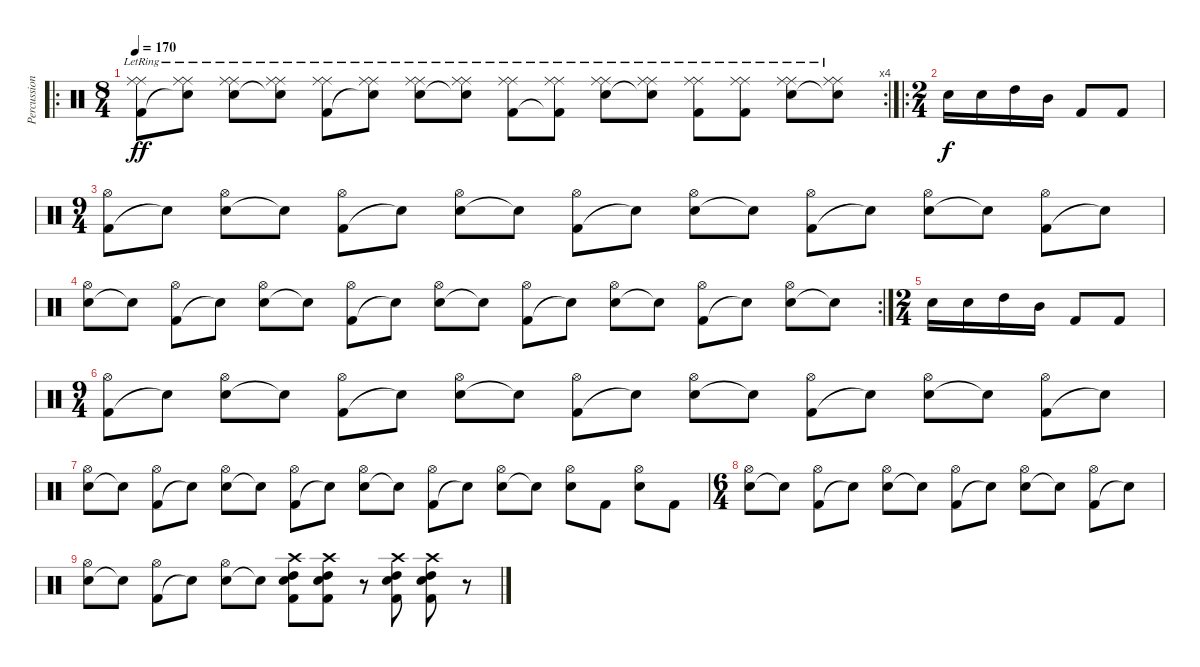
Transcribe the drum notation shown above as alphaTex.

\track ("Percussion" "Percussion") {instrument percussion}
\staff {score}
\articulation defaults
\ro
\rc 4
\ts (8 4)
\tempo 170
\clef neutral
\ks c
("Kick (hit) 2" "Ride (middle)"{lr} "Ride (middle)").8{dy ff} ("Snare (hit)"{t} "Ride (middle)"{lr} "Ride (middle)").8 ("Electric Snare (hit)" "Ride (middle)"{lr} "Ride (middle)").8 ("Snare (hit)"{t} "Ride (middle)"{lr} "Ride (middle)").8 ("Kick (hit) 2" "Ride (middle)"{lr} "Ride (middle)").8 ("Snare (hit)"{t} "Ride (middle)"{lr} "Ride (middle)").8 ("Electric Snare (hit)" "Ride (middle)"{lr} "Ride (middle)").8 ("Snare (hit)"{t} "Ride (middle)"{lr} "Ride (middle)").8 ("Kick (hit) 2" "Ride (middle)"{lr} "Ride (middle)").8 ("Kick (hit) 2"{t} "Ride (middle)"{lr} "Ride (middle)").8 ("Electric Snare (hit)" "Ride (middle)"{lr} "Ride (middle)").8 ("Snare (hit)"{t} "Ride (middle)"{lr} "Ride (middle)").8 ("Kick (hit) 2" "Ride (middle)"{lr} "Ride (middle)").8 ("Kick (hit) 2" "Ride (middle)"{lr} "Ride (middle)").8 ("Electric Snare (hit)" "Ride (middle)"{lr} "Ride (middle)").8 ("Snare (hit)"{t} "Ride (middle)"{lr} "Ride (middle)").8 |
\ro
\ts (2 4)
"Electric Snare (hit)".16{dy f} "Electric Snare (hit)".16 "High Tom (hit)".16 "Mid Tom (hit)".16 "Kick (hit) 2".8 "Kick (hit) 2".8 |
\ts (9 4)
("Kick (hit) 2" "Hi-Hat (open)").8 "Snare (hit)"{t}.8 ("Electric Snare (hit)" "Hi-Hat (open)").8 "Snare (hit)"{t}.8 ("Kick (hit) 2" "Hi-Hat (open)").8 "Snare (hit)"{t}.8 ("Electric Snare (hit)" "Hi-Hat (open)").8 "Snare (hit)"{t}.8 ("Kick (hit) 2" "Hi-Hat (open)").8 "Snare (hit)"{t}.8 ("Electric Snare (hit)" "Hi-Hat (open)").8 "Snare (hit)"{t}.8 ("Kick (hit) 2" "Hi-Hat (open)").8 "Snare (hit)"{t}.8 ("Electric Snare (hit)" "Hi-Hat (open)").8 "Snare (hit)"{t}.8 ("Kick (hit) 2" "Hi-Hat (open)").8 "Snare (hit)"{t}.8 |
\rc 2
("Electric Snare (hit)" "Hi-Hat (open)").8 "Snare (hit)"{t}.8 ("Kick (hit) 2" "Hi-Hat (open)").8 "Snare (hit)"{t}.8 ("Electric Snare (hit)" "Hi-Hat (open)").8 "Snare (hit)"{t}.8 ("Kick (hit) 2" "Hi-Hat (open)").8 "Snare (hit)"{t}.8 ("Electric Snare (hit)" "Hi-Hat (open)").8 "Snare (hit)"{t}.8 ("Kick (hit) 2" "Hi-Hat (open)").8 "Snare (hit)"{t}.8 ("Electric Snare (hit)" "Hi-Hat (open)").8 "Snare (hit)"{t}.8 ("Kick (hit) 2" "Hi-Hat (open)").8 "Snare (hit)"{t}.8 ("Electric Snare (hit)" "Hi-Hat (open)").8 "Snare (hit)"{t}.8 |
\ts (2 4)
"Electric Snare (hit)".16 "Electric Snare (hit)".16 "High Tom (hit)".16 "Mid Tom (hit)".16 "Kick (hit) 2".8 "Kick (hit) 2".8 |
\ts (9 4)
("Kick (hit) 2" "Hi-Hat (open)").8 "Snare (hit)"{t}.8 ("Electric Snare (hit)" "Hi-Hat (open)").8 "Snare (hit)"{t}.8 ("Kick (hit) 2" "Hi-Hat (open)").8 "Snare (hit)"{t}.8 ("Electric Snare (hit)" "Hi-Hat (open)").8 "Snare (hit)"{t}.8 ("Kick (hit) 2" "Hi-Hat (open)").8 "Snare (hit)"{t}.8 ("Electric Snare (hit)" "Hi-Hat (open)").8 "Snare (hit)"{t}.8 ("Kick (hit) 2" "Hi-Hat (open)").8 "Snare (hit)"{t}.8 ("Electric Snare (hit)" "Hi-Hat (open)").8 "Snare (hit)"{t}.8 ("Kick (hit) 2" "Hi-Hat (open)").8 "Snare (hit)"{t}.8 |
("Electric Snare (hit)" "Hi-Hat (open)").8 "Snare (hit)"{t}.8 ("Kick (hit) 2" "Hi-Hat (open)").8 "Snare (hit)"{t}.8 ("Electric Snare (hit)" "Hi-Hat (open)").8 "Snare (hit)"{t}.8 ("Kick (hit) 2" "Hi-Hat (open)").8 "Snare (hit)"{t}.8 ("Electric Snare (hit)" "Hi-Hat (open)").8 "Snare (hit)"{t}.8 ("Kick (hit) 2" "Hi-Hat (open)").8 "Snare (hit)"{t}.8 ("Electric Snare (hit)" "Hi-Hat (open)").8 "Snare (hit)"{t}.8 ("Electric Snare (hit)" "Hi-Hat (open)").8 "Kick (hit) 2".8 ("Electric Snare (hit)" "Hi-Hat (open)").8 "Kick (hit) 2".8 |
\ts (6 4)
("Electric Snare (hit)" "Hi-Hat (open)").8 "Snare (hit)"{t}.8 ("Kick (hit) 2" "Hi-Hat (open)").8 "Snare (hit)"{t}.8 ("Electric Snare (hit)" "Hi-Hat (open)").8 "Snare (hit)"{t}.8 ("Kick (hit) 2" "Hi-Hat (open)").8 "Snare (hit)"{t}.8 ("Electric Snare (hit)" "Hi-Hat (open)").8 "Snare (hit)"{t}.8 ("Kick (hit) 2" "Hi-Hat (open)").8 "Snare (hit)"{t}.8 |
("Electric Snare (hit)" "Hi-Hat (open)").8 "Snare (hit)"{t}.8 ("Kick (hit) 2" "Hi-Hat (open)").8 "Snare (hit)"{t}.8 ("Electric Snare (hit)" "Hi-Hat (open)").8 "Snare (hit)"{t}.8 ("Electric Snare (hit)" "Kick (hit) 2" "High Tom (hit)" "Crash high (hit)").8 ("Electric Snare (hit)" "Kick (hit) 2" "High Tom (hit)" "Crash high (hit)").8 r.8 ("Electric Snare (hit)" "Kick (hit) 2" "High Tom (hit)" "Crash high (hit)").8 ("Electric Snare (hit)" "Kick (hit) 2" "High Tom (hit)" "Crash high (hit)").8 r.8
